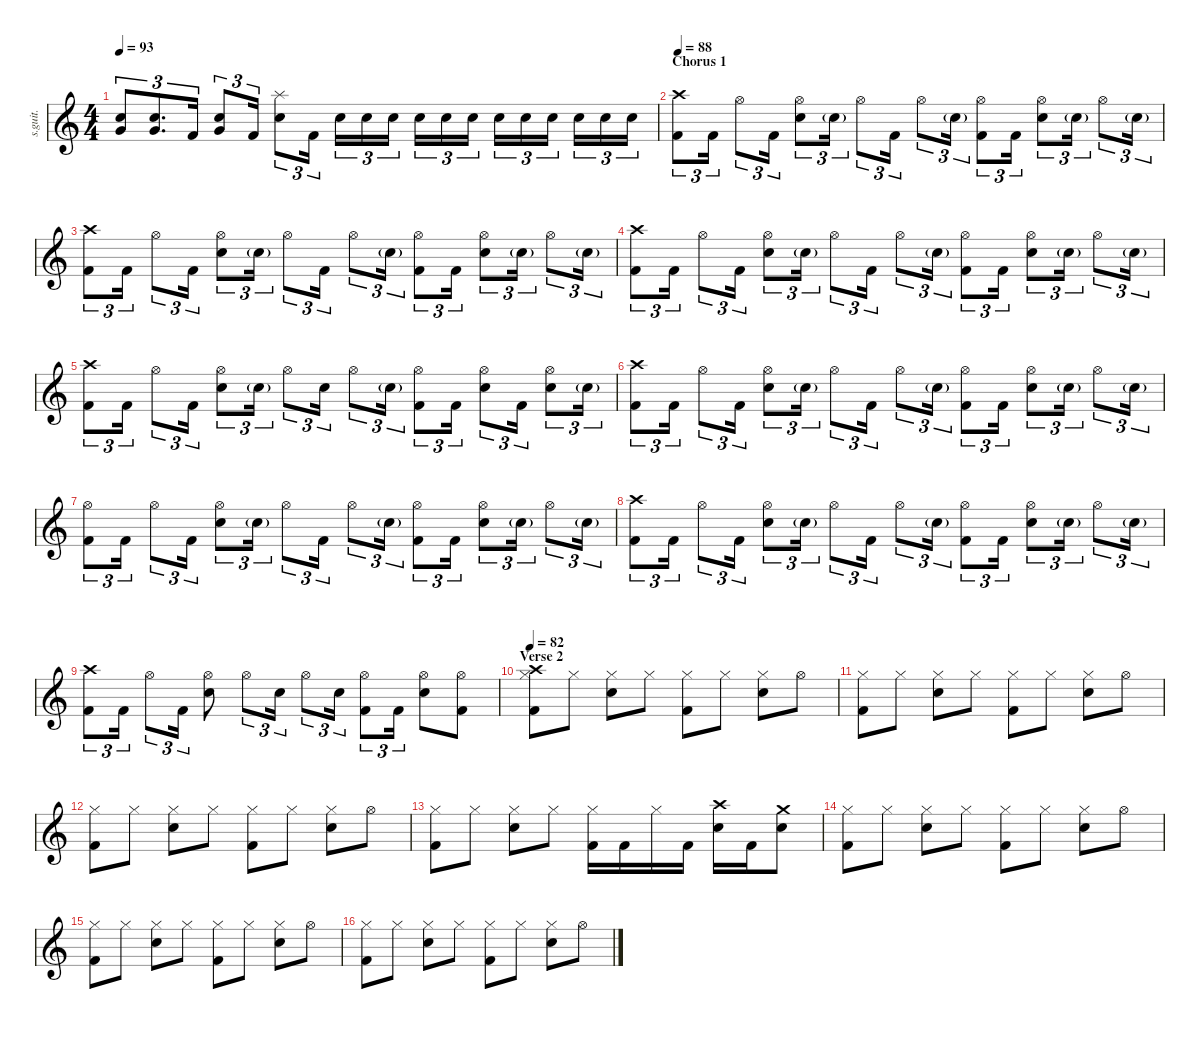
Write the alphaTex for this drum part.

\defaultSystemsLayout 4
\hideDynamics
\bracketExtendMode nobrackets
\track ("Brad Wilk - Drums" "s.guit.") {instrument percussion}
\staff {score}
\articulation defaults
\ts (4 4)
\tempo 93
\clef g2
\ks c
("Very Low Tom (hit)" "Snare (hit) 2").8{tu (3 2) lyrics (0 "") lyrics (1 "") lyrics (2 "") lyrics (3 "") lyrics (4 "") dy f} ("Very Low Tom (hit)" "Snare (hit) 2").8{d tu (3 2) lyrics (0 "") lyrics (1 "") lyrics (2 "") lyrics (3 "") lyrics (4 "")} "Kick (hit) 2".16{tu (3 2) lyrics (0 "") lyrics (1 "") lyrics (2 "") lyrics (3 "") lyrics (4 "")} ("Very Low Tom (hit)" "Snare (hit) 2").8{tu (3 2) lyrics (0 "") lyrics (1 "") lyrics (2 "") lyrics (3 "") lyrics (4 "")} "Kick (hit) 2".16{tu (3 2) lyrics (0 "") lyrics (1 "") lyrics (2 "") lyrics (3 "") lyrics (4 "")} ("Splash (hit)" "Snare (hit) 2").8{tu (3 2) lyrics (0 "") lyrics (1 "") lyrics (2 "") lyrics (3 "") lyrics (4 "")} "Kick (hit) 2".16{tu (3 2) lyrics (0 "") lyrics (1 "") lyrics (2 "") lyrics (3 "") lyrics (4 "")} "Snare (hit) 2".16{tu (3 2) lyrics (0 "") lyrics (1 "") lyrics (2 "") lyrics (3 "") lyrics (4 "")} "Snare (hit) 2".16{tu (3 2) lyrics (0 "") lyrics (1 "") lyrics (2 "") lyrics (3 "") lyrics (4 "")} "Snare (hit) 2".16{tu (3 2) lyrics (0 "") lyrics (1 "") lyrics (2 "") lyrics (3 "") lyrics (4 "")} "Snare (hit) 2".16{tu (3 2) lyrics (0 "") lyrics (1 "") lyrics (2 "") lyrics (3 "") lyrics (4 "")} "Snare (hit) 2".16{tu (3 2) lyrics (0 "") lyrics (1 "") lyrics (2 "") lyrics (3 "") lyrics (4 "")} "Snare (hit) 2".16{tu (3 2) lyrics (0 "") lyrics (1 "") lyrics (2 "") lyrics (3 "") lyrics (4 "")} "Snare (hit) 2".16{tu (3 2) lyrics (0 "") lyrics (1 "") lyrics (2 "") lyrics (3 "") lyrics (4 "")} "Snare (hit) 2".16{tu (3 2) lyrics (0 "") lyrics (1 "") lyrics (2 "") lyrics (3 "") lyrics (4 "")} "Snare (hit) 2".16{tu (3 2) lyrics (0 "") lyrics (1 "") lyrics (2 "") lyrics (3 "") lyrics (4 "")} "Snare (hit) 2".16{tu (3 2) lyrics (0 "") lyrics (1 "") lyrics (2 "") lyrics (3 "") lyrics (4 "")} "Snare (hit) 2".16{tu (3 2) lyrics (0 "") lyrics (1 "") lyrics (2 "") lyrics (3 "") lyrics (4 "")} "Snare (hit) 2".16{tu (3 2) lyrics (0 "") lyrics (1 "") lyrics (2 "") lyrics (3 "") lyrics (4 "")} |
\section ("" "Chorus 1")
\tempo 88
("Crash high (hit)" "Kick (hit) 2").8{tu (3 2) lyrics (0 "") lyrics (1 "") lyrics (2 "") lyrics (3 "") lyrics (4 "")} "Kick (hit) 2".16{tu (3 2) lyrics (0 "") lyrics (1 "") lyrics (2 "") lyrics (3 "") lyrics (4 "")} "Hi-Hat (open)".8{tu (3 2) lyrics (0 "") lyrics (1 "") lyrics (2 "") lyrics (3 "") lyrics (4 "")} "Kick (hit) 2".16{tu (3 2) lyrics (0 "") lyrics (1 "") lyrics (2 "") lyrics (3 "") lyrics (4 "")} ("Hi-Hat (open)" "Snare (hit) 2").8{tu (3 2) lyrics (0 "") lyrics (1 "") lyrics (2 "") lyrics (3 "") lyrics (4 "")} "Snare (hit) 2"{g}.16{tu (3 2) lyrics (0 "") lyrics (1 "") lyrics (2 "") lyrics (3 "") lyrics (4 "") dy mp} "Hi-Hat (open)".8{tu (3 2) lyrics (0 "") lyrics (1 "") lyrics (2 "") lyrics (3 "") lyrics (4 "") dy f} "Kick (hit) 2".16{tu (3 2) lyrics (0 "") lyrics (1 "") lyrics (2 "") lyrics (3 "") lyrics (4 "")} "Hi-Hat (open)".8{tu (3 2) lyrics (0 "") lyrics (1 "") lyrics (2 "") lyrics (3 "") lyrics (4 "")} "Snare (hit) 2"{g}.16{tu (3 2) lyrics (0 "") lyrics (1 "") lyrics (2 "") lyrics (3 "") lyrics (4 "") dy mp} ("Hi-Hat (open)" "Kick (hit) 2").8{tu (3 2) lyrics (0 "") lyrics (1 "") lyrics (2 "") lyrics (3 "") lyrics (4 "") dy f} "Kick (hit) 2".16{tu (3 2) lyrics (0 "") lyrics (1 "") lyrics (2 "") lyrics (3 "") lyrics (4 "")} ("Hi-Hat (open)" "Snare (hit) 2").8{tu (3 2) lyrics (0 "") lyrics (1 "") lyrics (2 "") lyrics (3 "") lyrics (4 "")} "Snare (hit) 2"{g}.16{tu (3 2) lyrics (0 "") lyrics (1 "") lyrics (2 "") lyrics (3 "") lyrics (4 "") dy mp} "Hi-Hat (open)".8{tu (3 2) lyrics (0 "") lyrics (1 "") lyrics (2 "") lyrics (3 "") lyrics (4 "") dy f} "Snare (hit) 2"{g}.16{tu (3 2) lyrics (0 "") lyrics (1 "") lyrics (2 "") lyrics (3 "") lyrics (4 "") dy mp} |
("Crash high (hit)" "Kick (hit) 2").8{tu (3 2) lyrics (0 "") lyrics (1 "") lyrics (2 "") lyrics (3 "") lyrics (4 "") dy f} "Kick (hit) 2".16{tu (3 2) lyrics (0 "") lyrics (1 "") lyrics (2 "") lyrics (3 "") lyrics (4 "")} "Hi-Hat (open)".8{tu (3 2) lyrics (0 "") lyrics (1 "") lyrics (2 "") lyrics (3 "") lyrics (4 "")} "Kick (hit) 2".16{tu (3 2) lyrics (0 "") lyrics (1 "") lyrics (2 "") lyrics (3 "") lyrics (4 "")} ("Hi-Hat (open)" "Snare (hit) 2").8{tu (3 2) lyrics (0 "") lyrics (1 "") lyrics (2 "") lyrics (3 "") lyrics (4 "")} "Snare (hit) 2"{g}.16{tu (3 2) lyrics (0 "") lyrics (1 "") lyrics (2 "") lyrics (3 "") lyrics (4 "") dy mp} "Hi-Hat (open)".8{tu (3 2) lyrics (0 "") lyrics (1 "") lyrics (2 "") lyrics (3 "") lyrics (4 "") dy f} "Kick (hit) 2".16{tu (3 2) lyrics (0 "") lyrics (1 "") lyrics (2 "") lyrics (3 "") lyrics (4 "")} "Hi-Hat (open)".8{tu (3 2) lyrics (0 "") lyrics (1 "") lyrics (2 "") lyrics (3 "") lyrics (4 "")} "Snare (hit) 2"{g}.16{tu (3 2) lyrics (0 "") lyrics (1 "") lyrics (2 "") lyrics (3 "") lyrics (4 "") dy mp} ("Hi-Hat (open)" "Kick (hit) 2").8{tu (3 2) lyrics (0 "") lyrics (1 "") lyrics (2 "") lyrics (3 "") lyrics (4 "") dy f} "Kick (hit) 2".16{tu (3 2) lyrics (0 "") lyrics (1 "") lyrics (2 "") lyrics (3 "") lyrics (4 "")} ("Hi-Hat (open)" "Snare (hit) 2").8{tu (3 2) lyrics (0 "") lyrics (1 "") lyrics (2 "") lyrics (3 "") lyrics (4 "")} "Snare (hit) 2"{g}.16{tu (3 2) lyrics (0 "") lyrics (1 "") lyrics (2 "") lyrics (3 "") lyrics (4 "") dy mp} "Hi-Hat (open)".8{tu (3 2) lyrics (0 "") lyrics (1 "") lyrics (2 "") lyrics (3 "") lyrics (4 "") dy f} "Snare (hit) 2"{g}.16{tu (3 2) lyrics (0 "") lyrics (1 "") lyrics (2 "") lyrics (3 "") lyrics (4 "") dy mp} |
("Crash high (hit)" "Kick (hit) 2").8{tu (3 2) lyrics (0 "") lyrics (1 "") lyrics (2 "") lyrics (3 "") lyrics (4 "") dy f} "Kick (hit) 2".16{tu (3 2) lyrics (0 "") lyrics (1 "") lyrics (2 "") lyrics (3 "") lyrics (4 "")} "Hi-Hat (open)".8{tu (3 2) lyrics (0 "") lyrics (1 "") lyrics (2 "") lyrics (3 "") lyrics (4 "")} "Kick (hit) 2".16{tu (3 2) lyrics (0 "") lyrics (1 "") lyrics (2 "") lyrics (3 "") lyrics (4 "")} ("Hi-Hat (open)" "Snare (hit) 2").8{tu (3 2) lyrics (0 "") lyrics (1 "") lyrics (2 "") lyrics (3 "") lyrics (4 "")} "Snare (hit) 2"{g}.16{tu (3 2) lyrics (0 "") lyrics (1 "") lyrics (2 "") lyrics (3 "") lyrics (4 "") dy mp} "Hi-Hat (open)".8{tu (3 2) lyrics (0 "") lyrics (1 "") lyrics (2 "") lyrics (3 "") lyrics (4 "") dy f} "Kick (hit) 2".16{tu (3 2) lyrics (0 "") lyrics (1 "") lyrics (2 "") lyrics (3 "") lyrics (4 "")} "Hi-Hat (open)".8{tu (3 2) lyrics (0 "") lyrics (1 "") lyrics (2 "") lyrics (3 "") lyrics (4 "")} "Snare (hit) 2"{g}.16{tu (3 2) lyrics (0 "") lyrics (1 "") lyrics (2 "") lyrics (3 "") lyrics (4 "") dy mp} ("Hi-Hat (open)" "Kick (hit) 2").8{tu (3 2) lyrics (0 "") lyrics (1 "") lyrics (2 "") lyrics (3 "") lyrics (4 "") dy f} "Kick (hit) 2".16{tu (3 2) lyrics (0 "") lyrics (1 "") lyrics (2 "") lyrics (3 "") lyrics (4 "")} ("Hi-Hat (open)" "Snare (hit) 2").8{tu (3 2) lyrics (0 "") lyrics (1 "") lyrics (2 "") lyrics (3 "") lyrics (4 "")} "Snare (hit) 2"{g}.16{tu (3 2) lyrics (0 "") lyrics (1 "") lyrics (2 "") lyrics (3 "") lyrics (4 "") dy mp} "Hi-Hat (open)".8{tu (3 2) lyrics (0 "") lyrics (1 "") lyrics (2 "") lyrics (3 "") lyrics (4 "") dy f} "Snare (hit) 2"{g}.16{tu (3 2) lyrics (0 "") lyrics (1 "") lyrics (2 "") lyrics (3 "") lyrics (4 "") dy mp} |
("Crash high (hit)" "Kick (hit) 2").8{tu (3 2) lyrics (0 "") lyrics (1 "") lyrics (2 "") lyrics (3 "") lyrics (4 "") dy f} "Kick (hit) 2".16{tu (3 2) lyrics (0 "") lyrics (1 "") lyrics (2 "") lyrics (3 "") lyrics (4 "")} "Hi-Hat (open)".8{tu (3 2) lyrics (0 "") lyrics (1 "") lyrics (2 "") lyrics (3 "") lyrics (4 "")} "Kick (hit) 2".16{tu (3 2) lyrics (0 "") lyrics (1 "") lyrics (2 "") lyrics (3 "") lyrics (4 "")} ("Hi-Hat (open)" "Snare (hit) 2").8{tu (3 2) lyrics (0 "") lyrics (1 "") lyrics (2 "") lyrics (3 "") lyrics (4 "")} "Snare (hit) 2"{g}.16{tu (3 2) lyrics (0 "") lyrics (1 "") lyrics (2 "") lyrics (3 "") lyrics (4 "") dy mp} "Hi-Hat (open)".8{tu (3 2) lyrics (0 "") lyrics (1 "") lyrics (2 "") lyrics (3 "") lyrics (4 "") dy f} "Snare (hit) 2".16{tu (3 2) lyrics (0 "") lyrics (1 "") lyrics (2 "") lyrics (3 "") lyrics (4 "")} "Hi-Hat (open)".8{tu (3 2) lyrics (0 "") lyrics (1 "") lyrics (2 "") lyrics (3 "") lyrics (4 "")} "Snare (hit) 2"{g}.16{tu (3 2) lyrics (0 "") lyrics (1 "") lyrics (2 "") lyrics (3 "") lyrics (4 "") dy mp} ("Hi-Hat (open)" "Kick (hit) 2").8{tu (3 2) lyrics (0 "") lyrics (1 "") lyrics (2 "") lyrics (3 "") lyrics (4 "") dy f} "Kick (hit) 2".16{tu (3 2) lyrics (0 "") lyrics (1 "") lyrics (2 "") lyrics (3 "") lyrics (4 "")} ("Hi-Hat (open)" "Snare (hit) 2").8{tu (3 2) lyrics (0 "") lyrics (1 "") lyrics (2 "") lyrics (3 "") lyrics (4 "")} "Kick (hit) 2".16{tu (3 2) lyrics (0 "") lyrics (1 "") lyrics (2 "") lyrics (3 "") lyrics (4 "")} ("Hi-Hat (open)" "Snare (hit) 2").8{tu (3 2) lyrics (0 "") lyrics (1 "") lyrics (2 "") lyrics (3 "") lyrics (4 "")} "Snare (hit) 2"{g}.16{tu (3 2) lyrics (0 "") lyrics (1 "") lyrics (2 "") lyrics (3 "") lyrics (4 "") dy mp} |
("Crash high (hit)" "Kick (hit) 2").8{tu (3 2) lyrics (0 "") lyrics (1 "") lyrics (2 "") lyrics (3 "") lyrics (4 "") dy f} "Kick (hit) 2".16{tu (3 2) lyrics (0 "") lyrics (1 "") lyrics (2 "") lyrics (3 "") lyrics (4 "")} "Hi-Hat (open)".8{tu (3 2) lyrics (0 "") lyrics (1 "") lyrics (2 "") lyrics (3 "") lyrics (4 "")} "Kick (hit) 2".16{tu (3 2) lyrics (0 "") lyrics (1 "") lyrics (2 "") lyrics (3 "") lyrics (4 "")} ("Hi-Hat (open)" "Snare (hit) 2").8{tu (3 2) lyrics (0 "") lyrics (1 "") lyrics (2 "") lyrics (3 "") lyrics (4 "")} "Snare (hit) 2"{g}.16{tu (3 2) lyrics (0 "") lyrics (1 "") lyrics (2 "") lyrics (3 "") lyrics (4 "") dy mp} "Hi-Hat (open)".8{tu (3 2) lyrics (0 "") lyrics (1 "") lyrics (2 "") lyrics (3 "") lyrics (4 "") dy f} "Kick (hit) 2".16{tu (3 2) lyrics (0 "") lyrics (1 "") lyrics (2 "") lyrics (3 "") lyrics (4 "")} "Hi-Hat (open)".8{tu (3 2) lyrics (0 "") lyrics (1 "") lyrics (2 "") lyrics (3 "") lyrics (4 "")} "Snare (hit) 2"{g}.16{tu (3 2) lyrics (0 "") lyrics (1 "") lyrics (2 "") lyrics (3 "") lyrics (4 "") dy mp} ("Hi-Hat (open)" "Kick (hit) 2").8{tu (3 2) lyrics (0 "") lyrics (1 "") lyrics (2 "") lyrics (3 "") lyrics (4 "") dy f} "Kick (hit) 2".16{tu (3 2) lyrics (0 "") lyrics (1 "") lyrics (2 "") lyrics (3 "") lyrics (4 "")} ("Hi-Hat (open)" "Snare (hit) 2").8{tu (3 2) lyrics (0 "") lyrics (1 "") lyrics (2 "") lyrics (3 "") lyrics (4 "")} "Snare (hit) 2"{g}.16{tu (3 2) lyrics (0 "") lyrics (1 "") lyrics (2 "") lyrics (3 "") lyrics (4 "") dy mp} "Hi-Hat (open)".8{tu (3 2) lyrics (0 "") lyrics (1 "") lyrics (2 "") lyrics (3 "") lyrics (4 "") dy f} "Snare (hit) 2"{g}.16{tu (3 2) lyrics (0 "") lyrics (1 "") lyrics (2 "") lyrics (3 "") lyrics (4 "") dy mp} |
("Hi-Hat (open)" "Kick (hit) 2").8{tu (3 2) lyrics (0 "") lyrics (1 "") lyrics (2 "") lyrics (3 "") lyrics (4 "") dy f} "Kick (hit) 2".16{tu (3 2) lyrics (0 "") lyrics (1 "") lyrics (2 "") lyrics (3 "") lyrics (4 "")} "Hi-Hat (open)".8{tu (3 2) lyrics (0 "") lyrics (1 "") lyrics (2 "") lyrics (3 "") lyrics (4 "")} "Kick (hit) 2".16{tu (3 2) lyrics (0 "") lyrics (1 "") lyrics (2 "") lyrics (3 "") lyrics (4 "")} ("Hi-Hat (open)" "Snare (hit) 2").8{tu (3 2) lyrics (0 "") lyrics (1 "") lyrics (2 "") lyrics (3 "") lyrics (4 "")} "Snare (hit) 2"{g}.16{tu (3 2) lyrics (0 "") lyrics (1 "") lyrics (2 "") lyrics (3 "") lyrics (4 "") dy mp} "Hi-Hat (open)".8{tu (3 2) lyrics (0 "") lyrics (1 "") lyrics (2 "") lyrics (3 "") lyrics (4 "") dy f} "Kick (hit) 2".16{tu (3 2) lyrics (0 "") lyrics (1 "") lyrics (2 "") lyrics (3 "") lyrics (4 "")} "Hi-Hat (open)".8{tu (3 2) lyrics (0 "") lyrics (1 "") lyrics (2 "") lyrics (3 "") lyrics (4 "")} "Snare (hit) 2"{g}.16{tu (3 2) lyrics (0 "") lyrics (1 "") lyrics (2 "") lyrics (3 "") lyrics (4 "") dy mp} ("Hi-Hat (open)" "Kick (hit) 2").8{tu (3 2) lyrics (0 "") lyrics (1 "") lyrics (2 "") lyrics (3 "") lyrics (4 "") dy f} "Kick (hit) 2".16{tu (3 2) lyrics (0 "") lyrics (1 "") lyrics (2 "") lyrics (3 "") lyrics (4 "")} ("Hi-Hat (open)" "Snare (hit) 2").8{tu (3 2) lyrics (0 "") lyrics (1 "") lyrics (2 "") lyrics (3 "") lyrics (4 "")} "Snare (hit) 2"{g}.16{tu (3 2) lyrics (0 "") lyrics (1 "") lyrics (2 "") lyrics (3 "") lyrics (4 "") dy mp} "Hi-Hat (open)".8{tu (3 2) lyrics (0 "") lyrics (1 "") lyrics (2 "") lyrics (3 "") lyrics (4 "") dy f} "Snare (hit) 2"{g}.16{tu (3 2) lyrics (0 "") lyrics (1 "") lyrics (2 "") lyrics (3 "") lyrics (4 "") dy mp} |
("Crash high (hit)" "Kick (hit) 2").8{tu (3 2) lyrics (0 "") lyrics (1 "") lyrics (2 "") lyrics (3 "") lyrics (4 "") dy f} "Kick (hit) 2".16{tu (3 2) lyrics (0 "") lyrics (1 "") lyrics (2 "") lyrics (3 "") lyrics (4 "")} "Hi-Hat (open)".8{tu (3 2) lyrics (0 "") lyrics (1 "") lyrics (2 "") lyrics (3 "") lyrics (4 "")} "Kick (hit) 2".16{tu (3 2) lyrics (0 "") lyrics (1 "") lyrics (2 "") lyrics (3 "") lyrics (4 "")} ("Hi-Hat (open)" "Snare (hit) 2").8{tu (3 2) lyrics (0 "") lyrics (1 "") lyrics (2 "") lyrics (3 "") lyrics (4 "")} "Snare (hit) 2"{g}.16{tu (3 2) lyrics (0 "") lyrics (1 "") lyrics (2 "") lyrics (3 "") lyrics (4 "") dy mp} "Hi-Hat (open)".8{tu (3 2) lyrics (0 "") lyrics (1 "") lyrics (2 "") lyrics (3 "") lyrics (4 "") dy f} "Kick (hit) 2".16{tu (3 2) lyrics (0 "") lyrics (1 "") lyrics (2 "") lyrics (3 "") lyrics (4 "")} "Hi-Hat (open)".8{tu (3 2) lyrics (0 "") lyrics (1 "") lyrics (2 "") lyrics (3 "") lyrics (4 "")} "Snare (hit) 2"{g}.16{tu (3 2) lyrics (0 "") lyrics (1 "") lyrics (2 "") lyrics (3 "") lyrics (4 "") dy mp} ("Hi-Hat (open)" "Kick (hit) 2").8{tu (3 2) lyrics (0 "") lyrics (1 "") lyrics (2 "") lyrics (3 "") lyrics (4 "") dy f} "Kick (hit) 2".16{tu (3 2) lyrics (0 "") lyrics (1 "") lyrics (2 "") lyrics (3 "") lyrics (4 "")} ("Hi-Hat (open)" "Snare (hit) 2").8{tu (3 2) lyrics (0 "") lyrics (1 "") lyrics (2 "") lyrics (3 "") lyrics (4 "")} "Snare (hit) 2"{g}.16{tu (3 2) lyrics (0 "") lyrics (1 "") lyrics (2 "") lyrics (3 "") lyrics (4 "") dy mp} "Hi-Hat (open)".8{tu (3 2) lyrics (0 "") lyrics (1 "") lyrics (2 "") lyrics (3 "") lyrics (4 "") dy f} "Snare (hit) 2"{g}.16{tu (3 2) lyrics (0 "") lyrics (1 "") lyrics (2 "") lyrics (3 "") lyrics (4 "") dy mp} |
("Crash high (hit)" "Kick (hit) 2").8{tu (3 2) lyrics (0 "") lyrics (1 "") lyrics (2 "") lyrics (3 "") lyrics (4 "") dy f} "Kick (hit) 2".16{tu (3 2) lyrics (0 "") lyrics (1 "") lyrics (2 "") lyrics (3 "") lyrics (4 "")} "Hi-Hat (open)".8{tu (3 2) lyrics (0 "") lyrics (1 "") lyrics (2 "") lyrics (3 "") lyrics (4 "")} "Kick (hit) 2".16{tu (3 2) lyrics (0 "") lyrics (1 "") lyrics (2 "") lyrics (3 "") lyrics (4 "")} ("Hi-Hat (open)" "Snare (hit) 2").8{lyrics (0 "") lyrics (1 "") lyrics (2 "") lyrics (3 "") lyrics (4 "")} "Hi-Hat (open)".8{tu (3 2) lyrics (0 "") lyrics (1 "") lyrics (2 "") lyrics (3 "") lyrics (4 "")} "Snare (hit) 2".16{tu (3 2) lyrics (0 "") lyrics (1 "") lyrics (2 "") lyrics (3 "") lyrics (4 "")} "Hi-Hat (open)".8{tu (3 2) lyrics (0 "") lyrics (1 "") lyrics (2 "") lyrics (3 "") lyrics (4 "")} "Snare (hit) 2".16{tu (3 2) lyrics (0 "") lyrics (1 "") lyrics (2 "") lyrics (3 "") lyrics (4 "") dy mf} ("Hi-Hat (open)" "Kick (hit) 2").8{tu (3 2) lyrics (0 "") lyrics (1 "") lyrics (2 "") lyrics (3 "") lyrics (4 "") dy f} "Kick (hit) 2".16{tu (3 2) lyrics (0 "") lyrics (1 "") lyrics (2 "") lyrics (3 "") lyrics (4 "")} ("Hi-Hat (open)" "Snare (hit) 2").8{lyrics (0 "") lyrics (1 "") lyrics (2 "") lyrics (3 "") lyrics (4 "")} ("Hi-Hat (open)" "Kick (hit) 2").8{lyrics (0 "") lyrics (1 "") lyrics (2 "") lyrics (3 "") lyrics (4 "")} |
\section ("" "Verse 2")
\tempo 82
("Crash high (hit)" "Hi-Hat (closed)" "Kick (hit) 2").8{lyrics (0 "") lyrics (1 "") lyrics (2 "") lyrics (3 "") lyrics (4 "")} "Hi-Hat (closed)".8{lyrics (0 "") lyrics (1 "") lyrics (2 "") lyrics (3 "") lyrics (4 "")} ("Hi-Hat (closed)" "Snare (hit) 2").8{lyrics (0 "") lyrics (1 "") lyrics (2 "") lyrics (3 "") lyrics (4 "")} "Hi-Hat (closed)".8{lyrics (0 "") lyrics (1 "") lyrics (2 "") lyrics (3 "") lyrics (4 "")} ("Hi-Hat (closed)" "Kick (hit) 2").8{lyrics (0 "") lyrics (1 "") lyrics (2 "") lyrics (3 "") lyrics (4 "")} "Hi-Hat (closed)".8{lyrics (0 "") lyrics (1 "") lyrics (2 "") lyrics (3 "") lyrics (4 "")} ("Hi-Hat (closed)" "Snare (hit) 2").8{lyrics (0 "") lyrics (1 "") lyrics (2 "") lyrics (3 "") lyrics (4 "")} "Hi-Hat (open)".8{lyrics (0 "") lyrics (1 "") lyrics (2 "") lyrics (3 "") lyrics (4 "")} |
("Hi-Hat (closed)" "Kick (hit) 2").8{lyrics (0 "") lyrics (1 "") lyrics (2 "") lyrics (3 "") lyrics (4 "")} "Hi-Hat (closed)".8{lyrics (0 "") lyrics (1 "") lyrics (2 "") lyrics (3 "") lyrics (4 "")} ("Hi-Hat (closed)" "Snare (hit) 2").8{lyrics (0 "") lyrics (1 "") lyrics (2 "") lyrics (3 "") lyrics (4 "")} "Hi-Hat (closed)".8{lyrics (0 "") lyrics (1 "") lyrics (2 "") lyrics (3 "") lyrics (4 "")} ("Hi-Hat (closed)" "Kick (hit) 2").8{lyrics (0 "") lyrics (1 "") lyrics (2 "") lyrics (3 "") lyrics (4 "")} "Hi-Hat (closed)".8{lyrics (0 "") lyrics (1 "") lyrics (2 "") lyrics (3 "") lyrics (4 "")} ("Hi-Hat (closed)" "Snare (hit) 2").8{lyrics (0 "") lyrics (1 "") lyrics (2 "") lyrics (3 "") lyrics (4 "")} "Hi-Hat (open)".8{lyrics (0 "") lyrics (1 "") lyrics (2 "") lyrics (3 "") lyrics (4 "")} |
("Hi-Hat (closed)" "Kick (hit) 2").8{lyrics (0 "") lyrics (1 "") lyrics (2 "") lyrics (3 "") lyrics (4 "")} "Hi-Hat (closed)".8{lyrics (0 "") lyrics (1 "") lyrics (2 "") lyrics (3 "") lyrics (4 "")} ("Hi-Hat (closed)" "Snare (hit) 2").8{lyrics (0 "") lyrics (1 "") lyrics (2 "") lyrics (3 "") lyrics (4 "")} "Hi-Hat (closed)".8{lyrics (0 "") lyrics (1 "") lyrics (2 "") lyrics (3 "") lyrics (4 "")} ("Hi-Hat (closed)" "Kick (hit) 2").8{lyrics (0 "") lyrics (1 "") lyrics (2 "") lyrics (3 "") lyrics (4 "")} "Hi-Hat (closed)".8{lyrics (0 "") lyrics (1 "") lyrics (2 "") lyrics (3 "") lyrics (4 "")} ("Hi-Hat (closed)" "Snare (hit) 2").8{lyrics (0 "") lyrics (1 "") lyrics (2 "") lyrics (3 "") lyrics (4 "")} "Hi-Hat (open)".8{lyrics (0 "") lyrics (1 "") lyrics (2 "") lyrics (3 "") lyrics (4 "")} |
("Hi-Hat (closed)" "Kick (hit) 2").8{lyrics (0 "") lyrics (1 "") lyrics (2 "") lyrics (3 "") lyrics (4 "")} "Hi-Hat (closed)".8{lyrics (0 "") lyrics (1 "") lyrics (2 "") lyrics (3 "") lyrics (4 "")} ("Hi-Hat (closed)" "Snare (hit) 2").8{lyrics (0 "") lyrics (1 "") lyrics (2 "") lyrics (3 "") lyrics (4 "")} "Hi-Hat (closed)".8{lyrics (0 "") lyrics (1 "") lyrics (2 "") lyrics (3 "") lyrics (4 "")} ("Hi-Hat (closed)" "Kick (hit) 2").16{lyrics (0 "") lyrics (1 "") lyrics (2 "") lyrics (3 "") lyrics (4 "")} "Kick (hit) 2".16{lyrics (0 "") lyrics (1 "") lyrics (2 "") lyrics (3 "") lyrics (4 "")} "Hi-Hat (closed)".16{lyrics (0 "") lyrics (1 "") lyrics (2 "") lyrics (3 "") lyrics (4 "")} "Kick (hit) 2".16{lyrics (0 "") lyrics (1 "") lyrics (2 "") lyrics (3 "") lyrics (4 "")} ("Crash high (hit)" "Snare (hit) 2").16{lyrics (0 "") lyrics (1 "") lyrics (2 "") lyrics (3 "") lyrics (4 "")} "Kick (hit) 2".16{lyrics (0 "") lyrics (1 "") lyrics (2 "") lyrics (3 "") lyrics (4 "")} ("Crash medium (hit)" "Snare (hit) 2").8{lyrics (0 "") lyrics (1 "") lyrics (2 "") lyrics (3 "") lyrics (4 "")} |
("Hi-Hat (closed)" "Kick (hit) 2").8{lyrics (0 "") lyrics (1 "") lyrics (2 "") lyrics (3 "") lyrics (4 "")} "Hi-Hat (closed)".8{lyrics (0 "") lyrics (1 "") lyrics (2 "") lyrics (3 "") lyrics (4 "")} ("Hi-Hat (closed)" "Snare (hit) 2").8{lyrics (0 "") lyrics (1 "") lyrics (2 "") lyrics (3 "") lyrics (4 "")} "Hi-Hat (closed)".8{lyrics (0 "") lyrics (1 "") lyrics (2 "") lyrics (3 "") lyrics (4 "")} ("Hi-Hat (closed)" "Kick (hit) 2").8{lyrics (0 "") lyrics (1 "") lyrics (2 "") lyrics (3 "") lyrics (4 "")} "Hi-Hat (closed)".8{lyrics (0 "") lyrics (1 "") lyrics (2 "") lyrics (3 "") lyrics (4 "")} ("Hi-Hat (closed)" "Snare (hit) 2").8{lyrics (0 "") lyrics (1 "") lyrics (2 "") lyrics (3 "") lyrics (4 "")} "Hi-Hat (open)".8{lyrics (0 "") lyrics (1 "") lyrics (2 "") lyrics (3 "") lyrics (4 "")} |
("Hi-Hat (closed)" "Kick (hit) 2").8{lyrics (0 "") lyrics (1 "") lyrics (2 "") lyrics (3 "") lyrics (4 "")} "Hi-Hat (closed)".8{lyrics (0 "") lyrics (1 "") lyrics (2 "") lyrics (3 "") lyrics (4 "")} ("Hi-Hat (closed)" "Snare (hit) 2").8{lyrics (0 "") lyrics (1 "") lyrics (2 "") lyrics (3 "") lyrics (4 "")} "Hi-Hat (closed)".8{lyrics (0 "") lyrics (1 "") lyrics (2 "") lyrics (3 "") lyrics (4 "")} ("Hi-Hat (closed)" "Kick (hit) 2").8{lyrics (0 "") lyrics (1 "") lyrics (2 "") lyrics (3 "") lyrics (4 "")} "Hi-Hat (closed)".8{lyrics (0 "") lyrics (1 "") lyrics (2 "") lyrics (3 "") lyrics (4 "")} ("Hi-Hat (closed)" "Snare (hit) 2").8{lyrics (0 "") lyrics (1 "") lyrics (2 "") lyrics (3 "") lyrics (4 "")} "Hi-Hat (open)".8{lyrics (0 "") lyrics (1 "") lyrics (2 "") lyrics (3 "") lyrics (4 "")} |
("Hi-Hat (closed)" "Kick (hit) 2").8{lyrics (0 "") lyrics (1 "") lyrics (2 "") lyrics (3 "") lyrics (4 "")} "Hi-Hat (closed)".8{lyrics (0 "") lyrics (1 "") lyrics (2 "") lyrics (3 "") lyrics (4 "")} ("Hi-Hat (closed)" "Snare (hit) 2").8{lyrics (0 "") lyrics (1 "") lyrics (2 "") lyrics (3 "") lyrics (4 "")} "Hi-Hat (closed)".8{lyrics (0 "") lyrics (1 "") lyrics (2 "") lyrics (3 "") lyrics (4 "")} ("Hi-Hat (closed)" "Kick (hit) 2").8{lyrics (0 "") lyrics (1 "") lyrics (2 "") lyrics (3 "") lyrics (4 "")} "Hi-Hat (closed)".8{lyrics (0 "") lyrics (1 "") lyrics (2 "") lyrics (3 "") lyrics (4 "")} ("Hi-Hat (closed)" "Snare (hit) 2").8{lyrics (0 "") lyrics (1 "") lyrics (2 "") lyrics (3 "") lyrics (4 "")} "Hi-Hat (open)".8{lyrics (0 "") lyrics (1 "") lyrics (2 "") lyrics (3 "") lyrics (4 "")}
